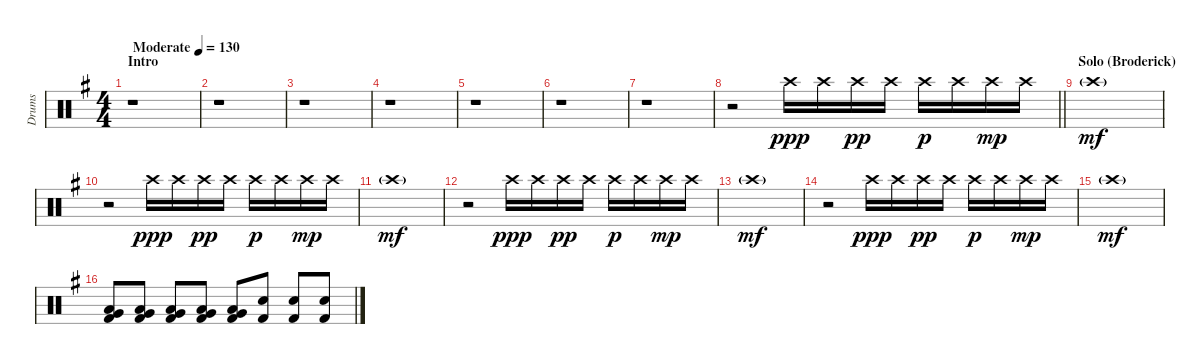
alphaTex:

\track ("Drums" "Drums") {instrument percussion}
\staff {score}
\articulation defaults
\ts (4 4)
\section ("" "Intro")
\tempo (130 "Moderate")
\clef neutral
\ks eminor
r.1{dy ppp} |
r.1 |
r.1 |
r.1 |
r.1 |
r.1 |
r.1 |
\barLineRight lightlight
r.2 "Crash high (hit)".16 "Crash high (hit)".16 "Crash high (hit)".16{dy pp} "Crash high (hit)".16 "Crash high (hit)".16{dy p} "Crash high (hit)".16 "Crash high (hit)".16{dy mp} "Crash high (hit)".16 |
\section ("" "Solo (Broderick)")
"Crash high (hit)"{g}.1{dy mf} |
r.2 "Crash high (hit)".16{dy ppp} "Crash high (hit)".16 "Crash high (hit)".16{dy pp} "Crash high (hit)".16 "Crash high (hit)".16{dy p} "Crash high (hit)".16 "Crash high (hit)".16{dy mp} "Crash high (hit)".16 |
"Crash high (hit)"{g}.1{dy mf} |
r.2 "Crash high (hit)".16{dy ppp} "Crash high (hit)".16 "Crash high (hit)".16{dy pp} "Crash high (hit)".16 "Crash high (hit)".16{dy p} "Crash high (hit)".16 "Crash high (hit)".16{dy mp} "Crash high (hit)".16 |
"Crash high (hit)"{g}.1{dy mf} |
r.2 "Crash high (hit)".16{dy ppp} "Crash high (hit)".16 "Crash high (hit)".16{dy pp} "Crash high (hit)".16 "Crash high (hit)".16{dy p} "Crash high (hit)".16 "Crash high (hit)".16{dy mp} "Crash high (hit)".16 |
"Crash high (hit)"{g}.1{dy mf} |
("Very Low Tom (hit)" "Low Floor Tom (hit)" "Kick (hit) 2").8 ("Very Low Tom (hit)" "Low Floor Tom (hit)" "Kick (hit) 2").8 ("Very Low Tom (hit)" "Low Floor Tom (hit)" "Kick (hit) 2").8 ("Very Low Tom (hit)" "Low Floor Tom (hit)" "Kick (hit) 2").8 ("Very Low Tom (hit)" "Low Floor Tom (hit)" "Kick (hit) 2").8 ("Snare (hit) 2" "Kick (hit) 2").8 ("Snare (hit) 2" "Kick (hit) 2").8 ("Snare (hit) 2" "Kick (hit) 2").8
